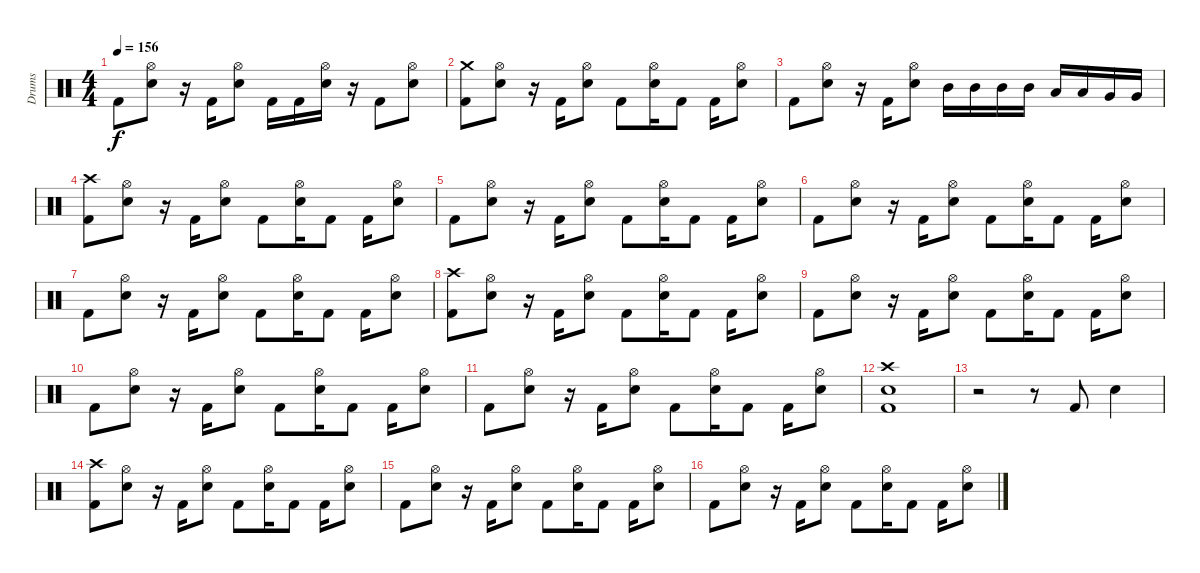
\track ("Drums" "Drums") {instrument percussion}
\staff {score}
\articulation defaults
\ts (4 4)
\tempo 156
\clef neutral
\ks c "Kick (hit) 2".8{dy f}
("Hi-Hat (open)" "Electric Snare (hit)").8 r.16 "Kick (hit) 2".16 ("Hi-Hat (open)" "Electric Snare (hit)").8 "Kick (hit) 2".16 "Kick (hit) 2".16 ("Hi-Hat (open)" "Electric Snare (hit)").16 r.16 "Kick (hit) 2".8 ("Hi-Hat (open)" "Electric Snare (hit)").8 |
("Crash medium (hit)" "Kick (hit) 2").8 ("Hi-Hat (open)" "Electric Snare (hit)").8 r.16 "Kick (hit) 2".16 ("Hi-Hat (open)" "Electric Snare (hit)").8 "Kick (hit) 2".8 ("Hi-Hat (open)" "Electric Snare (hit)").16 "Kick (hit) 2".8 "Kick (hit) 2".16 ("Hi-Hat (open)" "Electric Snare (hit)").8 |
"Kick (hit) 2".8 ("Hi-Hat (open)" "Electric Snare (hit)").8 r.16 "Kick (hit) 2".16 ("Hi-Hat (open)" "Electric Snare (hit)").8 "Mid Tom (hit)".16 "Mid Tom (hit)".16 "Mid Tom (hit)".16 "Mid Tom (hit)".16 "Low Tom (hit)".16 "Low Tom (hit)".16 "Very Low Tom (hit)".16 "Very Low Tom (hit)".16 |
("Crash high (hit)" "Kick (hit) 2").8 ("Hi-Hat (open)" "Electric Snare (hit)").8 r.16 "Kick (hit) 2".16 ("Hi-Hat (open)" "Electric Snare (hit)").8 "Kick (hit) 2".8 ("Hi-Hat (open)" "Electric Snare (hit)").16 "Kick (hit) 2".8 "Kick (hit) 2".16 ("Hi-Hat (open)" "Electric Snare (hit)").8 |
"Kick (hit) 2".8 ("Hi-Hat (open)" "Electric Snare (hit)").8 r.16 "Kick (hit) 2".16 ("Hi-Hat (open)" "Electric Snare (hit)").8 "Kick (hit) 2".8 ("Hi-Hat (open)" "Electric Snare (hit)").16 "Kick (hit) 2".8 "Kick (hit) 2".16 ("Hi-Hat (open)" "Electric Snare (hit)").8 |
"Kick (hit) 2".8 ("Hi-Hat (open)" "Electric Snare (hit)").8 r.16 "Kick (hit) 2".16 ("Hi-Hat (open)" "Electric Snare (hit)").8 "Kick (hit) 2".8 ("Hi-Hat (open)" "Electric Snare (hit)").16 "Kick (hit) 2".8 "Kick (hit) 2".16 ("Hi-Hat (open)" "Electric Snare (hit)").8 |
"Kick (hit) 2".8 ("Hi-Hat (open)" "Electric Snare (hit)").8 r.16 "Kick (hit) 2".16 ("Hi-Hat (open)" "Electric Snare (hit)").8 "Kick (hit) 2".8 ("Hi-Hat (open)" "Electric Snare (hit)").16 "Kick (hit) 2".8 "Kick (hit) 2".16 ("Hi-Hat (open)" "Electric Snare (hit)").8 |
("Crash high (hit)" "Kick (hit) 2").8 ("Hi-Hat (open)" "Electric Snare (hit)").8 r.16 "Kick (hit) 2".16 ("Hi-Hat (open)" "Electric Snare (hit)").8 "Kick (hit) 2".8 ("Hi-Hat (open)" "Electric Snare (hit)").16 "Kick (hit) 2".8 "Kick (hit) 2".16 ("Hi-Hat (open)" "Electric Snare (hit)").8 |
"Kick (hit) 2".8 ("Hi-Hat (open)" "Electric Snare (hit)").8 r.16 "Kick (hit) 2".16 ("Hi-Hat (open)" "Electric Snare (hit)").8 "Kick (hit) 2".8 ("Hi-Hat (open)" "Electric Snare (hit)").16 "Kick (hit) 2".8 "Kick (hit) 2".16 ("Hi-Hat (open)" "Electric Snare (hit)").8 |
"Kick (hit) 2".8 ("Hi-Hat (open)" "Electric Snare (hit)").8 r.16 "Kick (hit) 2".16 ("Hi-Hat (open)" "Electric Snare (hit)").8 "Kick (hit) 2".8 ("Hi-Hat (open)" "Electric Snare (hit)").16 "Kick (hit) 2".8 "Kick (hit) 2".16 ("Hi-Hat (open)" "Electric Snare (hit)").8 |
"Kick (hit) 2".8 ("Hi-Hat (open)" "Electric Snare (hit)").8 r.16 "Kick (hit) 2".16 ("Hi-Hat (open)" "Electric Snare (hit)").8 "Kick (hit) 2".8 ("Hi-Hat (open)" "Electric Snare (hit)").16 "Kick (hit) 2".8 "Kick (hit) 2".16 ("Hi-Hat (open)" "Electric Snare (hit)").8 |
("Crash high (hit)" "Electric Snare (hit)" "Kick (hit) 2").1 |
r.2 r.8 "Kick (hit) 2".8 "Electric Snare (hit)".4 |
("Crash high (hit)" "Kick (hit) 2").8 ("Hi-Hat (open)" "Electric Snare (hit)").8 r.16 "Kick (hit) 2".16 ("Hi-Hat (open)" "Electric Snare (hit)").8 "Kick (hit) 2".8 ("Hi-Hat (open)" "Electric Snare (hit)").16 "Kick (hit) 2".8 "Kick (hit) 2".16 ("Hi-Hat (open)" "Electric Snare (hit)").8 |
"Kick (hit) 2".8 ("Hi-Hat (open)" "Electric Snare (hit)").8 r.16 "Kick (hit) 2".16 ("Hi-Hat (open)" "Electric Snare (hit)").8 "Kick (hit) 2".8 ("Hi-Hat (open)" "Electric Snare (hit)").16 "Kick (hit) 2".8 "Kick (hit) 2".16 ("Hi-Hat (open)" "Electric Snare (hit)").8 |
"Kick (hit) 2".8 ("Hi-Hat (open)" "Electric Snare (hit)").8 r.16 "Kick (hit) 2".16 ("Hi-Hat (open)" "Electric Snare (hit)").8 "Kick (hit) 2".8 ("Hi-Hat (open)" "Electric Snare (hit)").16 "Kick (hit) 2".8 "Kick (hit) 2".16 ("Hi-Hat (open)" "Electric Snare (hit)").8
